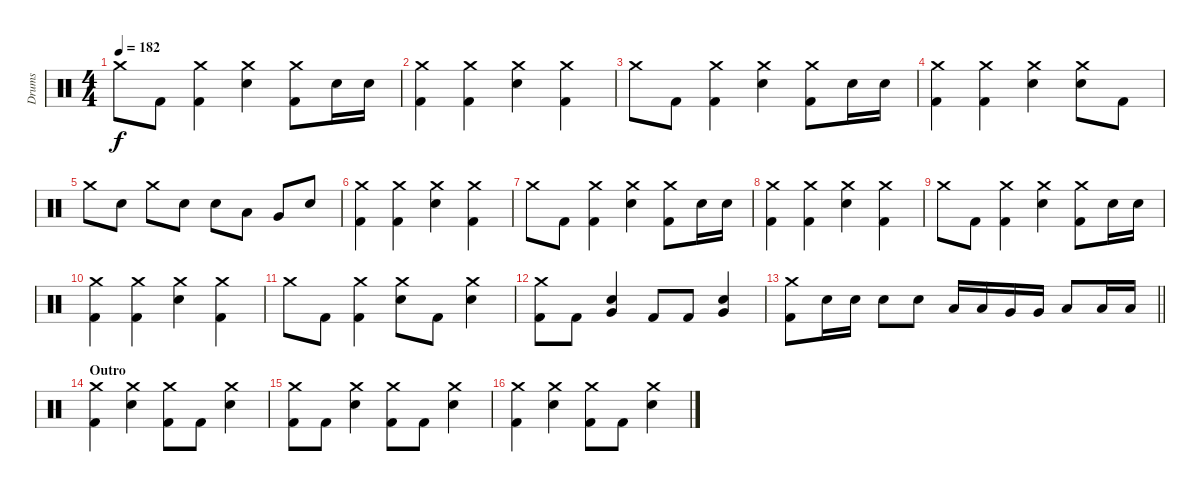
\track ("Drums" "Drums") {instrument percussion}
\staff {score}
\articulation defaults
\ts (4 4)
\tempo 182
\clef neutral
\ks c "Crash medium (hit)".8{dy f} "Kick (hit) 2".8
("Crash medium (hit)" "Kick (hit) 2").4 ("Crash medium (hit)" "Electric Snare (hit)").4 ("Crash medium (hit)" "Kick (hit) 2").8 "Electric Snare (hit)".16 "Electric Snare (hit)".16 |
("Crash medium (hit)" "Kick (hit) 2").4 ("Crash medium (hit)" "Kick (hit) 2").4 ("Crash medium (hit)" "Electric Snare (hit)").4 ("Crash medium (hit)" "Kick (hit) 2").4 |
"Crash medium (hit)".8 "Kick (hit) 2".8 ("Crash medium (hit)" "Kick (hit) 2").4 ("Crash medium (hit)" "Electric Snare (hit)").4 ("Crash medium (hit)" "Kick (hit) 2").8 "Electric Snare (hit)".16 "Electric Snare (hit)".16 |
("Crash medium (hit)" "Kick (hit) 2").4 ("Crash medium (hit)" "Kick (hit) 2").4 ("Crash medium (hit)" "Electric Snare (hit)").4 ("Crash medium (hit)" "Electric Snare (hit)").8 "Kick (hit) 2".8 |
"Crash medium (hit)".8 "Electric Snare (hit)".8 "Crash medium (hit)".8 "Electric Snare (hit)".8 "Electric Snare (hit)".8 "Low Tom (hit)".8 "Very Low Tom (hit)".8 "Electric Snare (hit)".8 |
("Crash medium (hit)" "Kick (hit) 2").4 ("Crash medium (hit)" "Kick (hit) 2").4 ("Crash medium (hit)" "Electric Snare (hit)").4 ("Crash medium (hit)" "Kick (hit) 2").4 |
"Crash medium (hit)".8 "Kick (hit) 2".8 ("Crash medium (hit)" "Kick (hit) 2").4 ("Crash medium (hit)" "Electric Snare (hit)").4 ("Crash medium (hit)" "Kick (hit) 2").8 "Electric Snare (hit)".16 "Electric Snare (hit)".16 |
("Crash medium (hit)" "Kick (hit) 2").4 ("Crash medium (hit)" "Kick (hit) 2").4 ("Crash medium (hit)" "Electric Snare (hit)").4 ("Crash medium (hit)" "Kick (hit) 2").4 |
"Crash medium (hit)".8 "Kick (hit) 2".8 ("Crash medium (hit)" "Kick (hit) 2").4 ("Crash medium (hit)" "Electric Snare (hit)").4 ("Crash medium (hit)" "Kick (hit) 2").8 "Electric Snare (hit)".16 "Electric Snare (hit)".16 |
("Crash medium (hit)" "Kick (hit) 2").4 ("Crash medium (hit)" "Kick (hit) 2").4 ("Crash medium (hit)" "Electric Snare (hit)").4 ("Crash medium (hit)" "Kick (hit) 2").4 |
"Crash medium (hit)".8 "Kick (hit) 2".8 ("Crash medium (hit)" "Kick (hit) 2").4 ("Crash medium (hit)" "Electric Snare (hit)").8 "Kick (hit) 2".8 ("Crash medium (hit)" "Electric Snare (hit)").4 |
("Crash medium (hit)" "Kick (hit) 2").8 "Kick (hit) 2".8 ("Very Low Tom (hit)" "Electric Snare (hit)").4 "Kick (hit) 2".8 "Kick (hit) 2".8 ("Very Low Tom (hit)" "Electric Snare (hit)").4 |
\barLineRight lightlight
("Crash medium (hit)" "Kick (hit) 2").8 "Electric Snare (hit)".16 "Electric Snare (hit)".16 "Electric Snare (hit)".8 "Electric Snare (hit)".8 "Low Tom (hit)".16 "Low Tom (hit)".16 "Very Low Tom (hit)".16 "Very Low Tom (hit)".16 "Low Floor Tom (hit)".8 "Low Floor Tom (hit)".16 "Low Floor Tom (hit)".16 |
\section ("" "Outro")
("Crash medium (hit)" "Kick (hit) 2").4 ("Crash medium (hit)" "Electric Snare (hit)").4 ("Crash medium (hit)" "Kick (hit) 2").8 "Kick (hit) 2".8 ("Crash medium (hit)" "Electric Snare (hit)").4 |
("Crash medium (hit)" "Kick (hit) 2").8 "Kick (hit) 2".8 ("Crash medium (hit)" "Electric Snare (hit)").4 ("Crash medium (hit)" "Kick (hit) 2").8 "Kick (hit) 2".8 ("Crash medium (hit)" "Electric Snare (hit)").4 |
("Crash medium (hit)" "Kick (hit) 2").4 ("Crash medium (hit)" "Electric Snare (hit)").4 ("Crash medium (hit)" "Kick (hit) 2").8 "Kick (hit) 2".8 ("Crash medium (hit)" "Electric Snare (hit)").4
